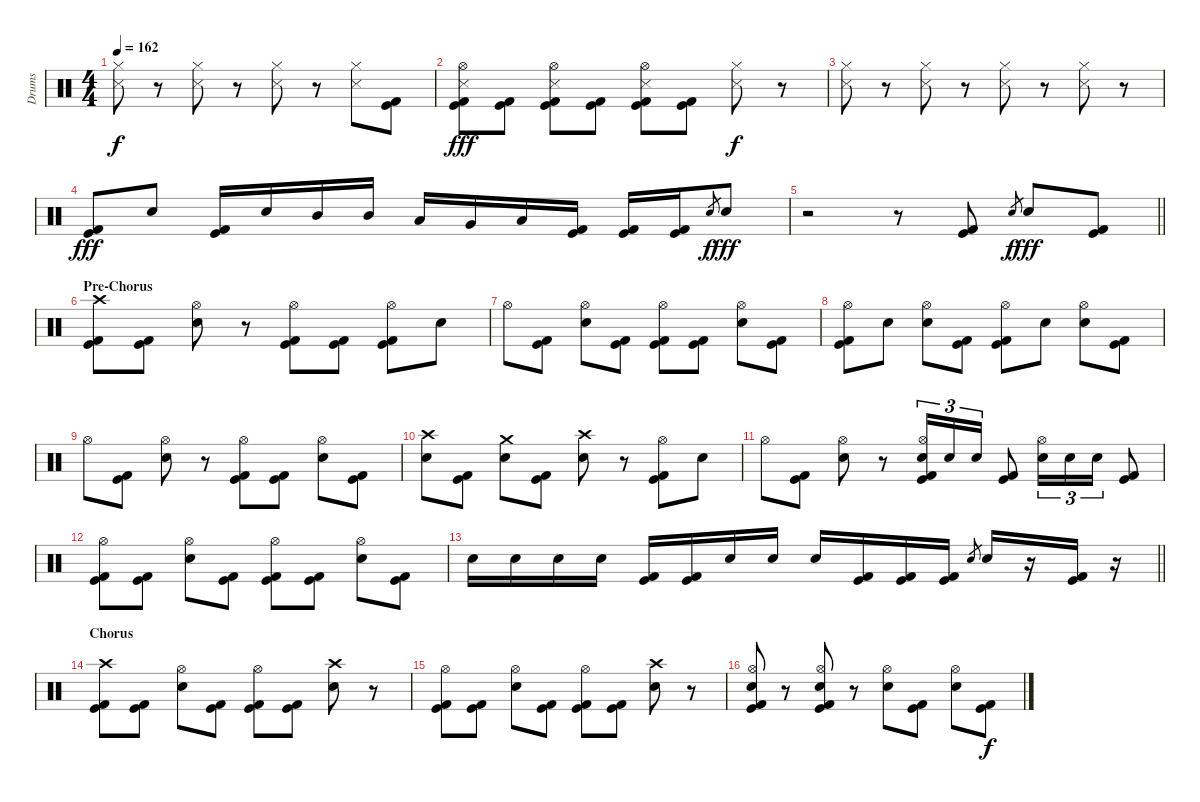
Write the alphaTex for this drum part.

\track ("Drums" "Drums") {instrument percussion}
\staff {score}
\articulation defaults
\ts (4 4)
\tempo 162
\clef neutral
\ks c
("Hi-Hat (closed)" "Metronome (hit)").8{dy f} r.8 ("Hi-Hat (closed)" "Metronome (hit)").8 r.8 ("Hi-Hat (closed)" "Metronome (hit)").8 r.8 ("Hi-Hat (closed)" "Metronome (hit)").8 ("Kick (hit)" "Kick (hit) 2").8 |
("Hi-Hat (open)" "Metronome (hit)" "Kick (hit)" "Kick (hit) 2").8{dy fff} ("Kick (hit)" "Kick (hit) 2").8 ("Hi-Hat (open)" "Metronome (hit)" "Kick (hit)" "Kick (hit) 2").8 ("Kick (hit)" "Kick (hit) 2").8 ("Hi-Hat (open)" "Metronome (hit)" "Kick (hit)" "Kick (hit) 2").8 ("Kick (hit)" "Kick (hit) 2").8 ("Hi-Hat (closed)" "Metronome (hit)").8{dy f} r.8 |
("Hi-Hat (closed)" "Metronome (hit)").8 r.8 ("Hi-Hat (closed)" "Metronome (hit)").8 r.8 ("Hi-Hat (closed)" "Metronome (hit)").8 r.8 ("Hi-Hat (closed)" "Metronome (hit)").8 r.8 |
("Kick (hit)" "Kick (hit) 2").8{dy fff} "Electric Snare (hit)".8 ("Kick (hit)" "Kick (hit) 2").16 "Electric Snare (hit)".16 "Mid Tom (hit)".16 "Mid Tom (hit)".16 "Low Tom (hit)".16 "Very Low Tom (hit)".16 "Low Floor Tom (hit)".16 ("Kick (hit)" "Kick (hit) 2").16 ("Kick (hit)" "Kick (hit) 2").16 ("Kick (hit)" "Kick (hit) 2").16 "Electric Snare (hit)".8{gr dy f} "Electric Snare (hit)".8{dy fff} |
\barLineRight lightlight
r.2 r.8 ("Kick (hit)" "Kick (hit) 2").8 "Electric Snare (hit)".8{gr dy f} "Electric Snare (hit)".8{dy fff} ("Kick (hit)" "Kick (hit) 2").8 |
\section ("" "Pre-Chorus")
("Crash high (hit)" "Kick (hit)" "Kick (hit) 2").8 ("Kick (hit)" "Kick (hit) 2").8 ("Hi-Hat (open)" "Electric Snare (hit)").8 r.8 ("Hi-Hat (open)" "Kick (hit)" "Kick (hit) 2").8 ("Kick (hit)" "Kick (hit) 2").8 ("Hi-Hat (open)" "Kick (hit)" "Kick (hit) 2").8 "Electric Snare (hit)".8 |
"Hi-Hat (open)".8 ("Kick (hit)" "Kick (hit) 2").8 ("Hi-Hat (open)" "Electric Snare (hit)").8 ("Kick (hit)" "Kick (hit) 2").8 ("Hi-Hat (open)" "Kick (hit)" "Kick (hit) 2").8 ("Kick (hit)" "Kick (hit) 2").8 ("Hi-Hat (open)" "Electric Snare (hit)").8 ("Kick (hit)" "Kick (hit) 2").8 |
("Hi-Hat (open)" "Kick (hit)" "Kick (hit) 2").8 "Electric Snare (hit)".8 ("Hi-Hat (open)" "Electric Snare (hit)").8 ("Kick (hit)" "Kick (hit) 2").8 ("Hi-Hat (open)" "Kick (hit)" "Kick (hit) 2").8 "Electric Snare (hit)".8 ("Hi-Hat (open)" "Electric Snare (hit)").8 ("Kick (hit)" "Kick (hit) 2").8 |
"Hi-Hat (open)".8 ("Kick (hit)" "Kick (hit) 2").8 ("Hi-Hat (open)" "Electric Snare (hit)").8 r.8 ("Hi-Hat (open)" "Kick (hit)" "Kick (hit) 2").8 ("Kick (hit)" "Kick (hit) 2").8 ("Hi-Hat (open)" "Electric Snare (hit)").8 ("Kick (hit)" "Kick (hit) 2").8 |
("Crash high (hit)" "Electric Snare (hit)").8 ("Kick (hit)" "Kick (hit) 2").8 ("Crash medium (hit)" "Electric Snare (hit)").8 ("Kick (hit)" "Kick (hit) 2").8 ("Crash high (hit)" "Electric Snare (hit)").8 r.8 ("Hi-Hat (open)" "Kick (hit)" "Kick (hit) 2").8 "Electric Snare (hit)".8 |
"Hi-Hat (open)".8 ("Kick (hit)" "Kick (hit) 2").8 ("Hi-Hat (open)" "Electric Snare (hit)").8 r.8 ("Hi-Hat (open)" "Electric Snare (hit)" "Kick (hit)" "Kick (hit) 2").16{tu (3 2)} "Electric Snare (hit)".16{tu (3 2)} "Electric Snare (hit)".16{tu (3 2)} ("Kick (hit)" "Kick (hit) 2").8 ("Hi-Hat (open)" "Electric Snare (hit)").16{tu (3 2)} "Electric Snare (hit)".16{tu (3 2)} "Electric Snare (hit)".16{tu (3 2)} ("Kick (hit)" "Kick (hit) 2").8 |
("Hi-Hat (open)" "Kick (hit)" "Kick (hit) 2").8 ("Kick (hit)" "Kick (hit) 2").8 ("Hi-Hat (open)" "Electric Snare (hit)").8 ("Kick (hit)" "Kick (hit) 2").8 ("Hi-Hat (open)" "Kick (hit)" "Kick (hit) 2").8 ("Kick (hit)" "Kick (hit) 2").8 ("Hi-Hat (open)" "Electric Snare (hit)").8 ("Kick (hit)" "Kick (hit) 2").8 |
\barLineRight lightlight "Electric Snare (hit)".16 "Electric Snare (hit)".16 "Electric Snare (hit)".16 "Electric Snare (hit)".16
("Kick (hit)" "Kick (hit) 2").16 ("Kick (hit)" "Kick (hit) 2").16 "Electric Snare (hit)".16 "Electric Snare (hit)".16 "Electric Snare (hit)".16 ("Kick (hit)" "Kick (hit) 2").16 ("Kick (hit)" "Kick (hit) 2").16 ("Kick (hit)" "Kick (hit) 2").16 "Electric Snare (hit)".8{gr} "Electric Snare (hit)".16 r.16 ("Kick (hit)" "Kick (hit) 2").16 r.16 |
\section ("" "Chorus")
("Crash high (hit)" "Kick (hit)" "Kick (hit) 2").8 ("Kick (hit)" "Kick (hit) 2").8 ("Hi-Hat (open)" "Electric Snare (hit)").8 ("Kick (hit)" "Kick (hit) 2").8 ("Hi-Hat (open)" "Kick (hit)" "Kick (hit) 2").8 ("Kick (hit)" "Kick (hit) 2").8 ("Crash high (hit)" "Electric Snare (hit)").8 r.8 |
("Hi-Hat (open)" "Kick (hit)" "Kick (hit) 2").8 ("Kick (hit)" "Kick (hit) 2").8 ("Hi-Hat (open)" "Electric Snare (hit)").8 ("Kick (hit)" "Kick (hit) 2").8 ("Hi-Hat (open)" "Kick (hit)" "Kick (hit) 2").8 ("Kick (hit)" "Kick (hit) 2").8 ("Crash high (hit)" "Electric Snare (hit)").8 r.8 |
("Hi-Hat (open)" "Electric Snare (hit)" "Kick (hit)" "Kick (hit) 2").8 r.8 ("Hi-Hat (open)" "Electric Snare (hit)" "Kick (hit)" "Kick (hit) 2").8 r.8 ("Hi-Hat (open)" "Electric Snare (hit)").8 ("Kick (hit)" "Kick (hit) 2").8 ("Hi-Hat (open)" "Electric Snare (hit)").8 ("Kick (hit)" "Kick (hit) 2").8{dy f}
